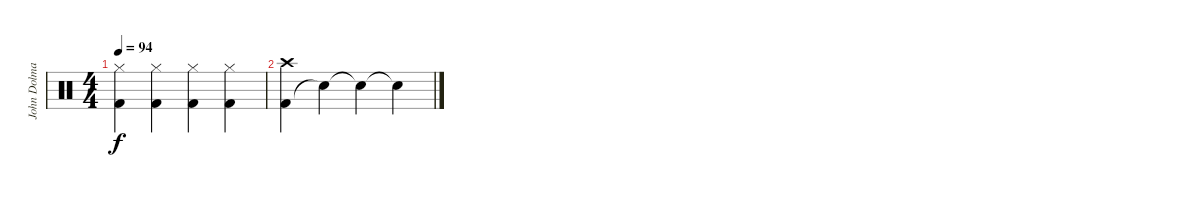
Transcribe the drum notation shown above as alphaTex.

\track ("John Dolmayan" "John Dolma") {instrument percussion}
\staff {score}
\articulation defaults
\ts (4 4)
\tempo 94
\clef neutral
\ks c
("Kick (hit) 2" "Hi-Hat (closed)").4{dy f} ("Kick (hit) 2" "Hi-Hat (closed)").4 ("Kick (hit) 2" "Hi-Hat (closed)").4 ("Kick (hit) 2" "Hi-Hat (closed)").4 |
("Kick (hit) 2" "Crash high (hit)").4 "Snare (hit)"{t}.4 "Snare (hit)"{t}.4 "Snare (hit)"{t}.4
